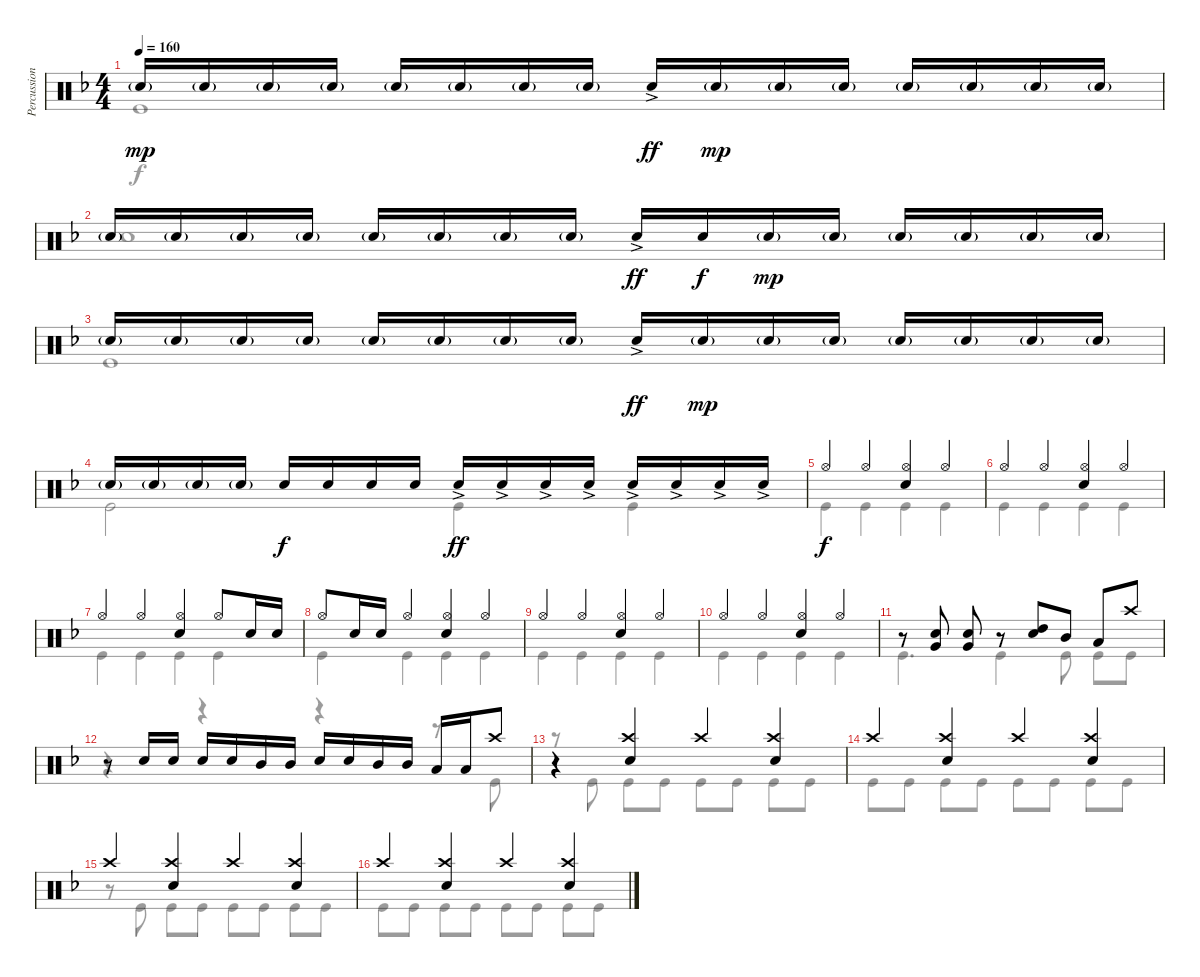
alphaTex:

\track ("Percussion" "Percussion") {instrument percussion}
\staff {score}
\articulation defaults
\voice
\ts (4 4)
\tempo 160
\clef neutral
\ks dminor "Snare (hit) 2"{g}.16{dy mp} "Snare (hit) 2"{g}.16 "Snare (hit) 2"{g}.16 "Snare (hit) 2"{g}.16 "Snare (hit) 2"{g}.16 "Snare (hit) 2"{g}.16 "Snare (hit) 2"{g}.16 "Snare (hit) 2"{g}.16 "Snare (hit) 2"{ac}.16{dy ff} "Snare (hit) 2"{g}.16{dy mp} "Snare (hit) 2"{g}.16 "Snare (hit) 2"{g}.16 "Snare (hit) 2"{g}.16 "Snare (hit) 2"{g}.16 "Snare (hit) 2"{g}.16 "Snare (hit) 2"{g}.16
|
"Snare (hit) 2"{g}.16 "Snare (hit) 2"{g}.16 "Snare (hit) 2"{g}.16 "Snare (hit) 2"{g}.16 "Snare (hit) 2"{g}.16 "Snare (hit) 2"{g}.16 "Snare (hit) 2"{g}.16 "Snare (hit) 2"{g}.16 "Snare (hit) 2"{ac}.16{dy ff} "Snare (hit) 2".16{dy f} "Snare (hit) 2"{g}.16{dy mp} "Snare (hit) 2"{g}.16 "Snare (hit) 2"{g}.16 "Snare (hit) 2"{g}.16 "Snare (hit) 2"{g}.16 "Snare (hit) 2"{g}.16 |
"Snare (hit) 2"{g}.16 "Snare (hit) 2"{g}.16 "Snare (hit) 2"{g}.16 "Snare (hit) 2"{g}.16 "Snare (hit) 2"{g}.16 "Snare (hit) 2"{g}.16 "Snare (hit) 2"{g}.16 "Snare (hit) 2"{g}.16 "Snare (hit) 2"{ac}.16{dy ff} "Snare (hit) 2"{g}.16{dy mp} "Snare (hit) 2"{g}.16 "Snare (hit) 2"{g}.16 "Snare (hit) 2"{g}.16 "Snare (hit) 2"{g}.16 "Snare (hit) 2"{g}.16 "Snare (hit) 2"{g}.16 |
"Snare (hit) 2"{g}.16 "Snare (hit) 2"{g}.16 "Snare (hit) 2"{g}.16 "Snare (hit) 2"{g}.16 "Snare (hit) 2".16{dy f} "Snare (hit) 2".16 "Snare (hit) 2".16 "Snare (hit) 2".16 "Snare (hit) 2"{ac}.16{dy ff} "Snare (hit) 2"{ac}.16 "Snare (hit) 2"{ac}.16 "Snare (hit) 2"{ac}.16 "Snare (hit) 2"{ac}.16 "Snare (hit) 2"{ac}.16 "Snare (hit) 2"{ac}.16 "Snare (hit) 2"{ac}.16 |
"Hi-Hat (open)".4{dy f} "Hi-Hat (open)".4 ("Hi-Hat (open)" "Snare (hit) 2").4 "Hi-Hat (open)".4 |
"Hi-Hat (open)".4 "Hi-Hat (open)".4 ("Hi-Hat (open)" "Snare (hit) 2").4 "Hi-Hat (open)".4 |
"Hi-Hat (open)".4 "Hi-Hat (open)".4 ("Hi-Hat (open)" "Snare (hit) 2").4 "Hi-Hat (open)".8 "Snare (hit) 2".16 "Snare (hit) 2".16 |
"Hi-Hat (open)".8 "Snare (hit) 2".16 "Snare (hit) 2".16 "Hi-Hat (open)".4 ("Hi-Hat (open)" "Snare (hit) 2").4 "Hi-Hat (open)".4 |
"Hi-Hat (open)".4 "Hi-Hat (open)".4 ("Hi-Hat (open)" "Snare (hit) 2").4 "Hi-Hat (open)".4 |
"Hi-Hat (open)".4 "Hi-Hat (open)".4 ("Hi-Hat (open)" "Snare (hit) 2").4 "Hi-Hat (open)".4 |
r.8 ("Very Low Tom (hit)" "Snare (hit) 2").8 ("Very Low Tom (hit)" "Snare (hit) 2").8 r.8 ("High Tom (hit)" "Snare (hit) 2").8 "Mid Tom (hit)".8 "Low Tom (hit)".8 "Crash high (hit)".8 |
r.8 "Snare (hit) 2".16 "Snare (hit) 2".16 "Snare (hit) 2".16 "Snare (hit) 2".16 "Mid Tom (hit)".16 "Mid Tom (hit)".16 "Snare (hit) 2".16 "Snare (hit) 2".16 "Mid Tom (hit)".16 "Mid Tom (hit)".16 "Low Tom (hit)".16 "Low Tom (hit)".16 "Crash high (hit)".8 |
r.4 ("Crash high (hit)" "Snare (hit) 2").4 "Crash high (hit)".4 ("Crash high (hit)" "Snare (hit) 2").4 |
"Crash high (hit)".4 ("Crash high (hit)" "Snare (hit) 2").4 "Crash high (hit)".4 ("Crash high (hit)" "Snare (hit) 2").4 |
"Crash high (hit)".4 ("Crash high (hit)" "Snare (hit) 2").4 "Crash high (hit)".4 ("Crash high (hit)" "Snare (hit) 2").4 |
"Crash high (hit)".4 ("Crash high (hit)" "Snare (hit) 2").4 "Crash high (hit)".4 ("Crash high (hit)" "Snare (hit) 2").4
\voice
\clef neutral
\ottava regular
\simile none
\ks dminor "Kick (hit)".1{dy f}
|
"Snare (hit)".1 |
"Kick (hit)".1 |
"Kick (hit)".2 "Kick (hit)".4 "Kick (hit)".4 |
"Kick (hit)".4 "Kick (hit)".4 "Kick (hit)".4 "Kick (hit)".4 |
"Kick (hit)".4 "Kick (hit)".4 "Kick (hit)".4 "Kick (hit)".4 |
"Kick (hit)".4 "Kick (hit)".4 "Kick (hit)".4 "Kick (hit)".4 |
"Kick (hit)".4 "Kick (hit)".4 "Kick (hit)".4 "Kick (hit)".4 |
"Kick (hit)".4 "Kick (hit)".4 "Kick (hit)".4 "Kick (hit)".4 |
"Kick (hit)".4 "Kick (hit)".4 "Kick (hit)".4 "Kick (hit)".4 |
"Kick (hit)".4{d} "Kick (hit)".4 "Kick (hit)".8 "Kick (hit)".8 "Kick (hit)".8 |
r.4 r.4 r.4 r.8 "Kick (hit)".8 |
r.8 "Kick (hit)".8 "Kick (hit)".8 "Kick (hit)".8 "Kick (hit)".8 "Kick (hit)".8 "Kick (hit)".8 "Kick (hit)".8 |
"Kick (hit)".8 "Kick (hit)".8 "Kick (hit)".8 "Kick (hit)".8 "Kick (hit)".8 "Kick (hit)".8 "Kick (hit)".8 "Kick (hit)".8 |
r.8 "Kick (hit)".8 "Kick (hit)".8 "Kick (hit)".8 "Kick (hit)".8 "Kick (hit)".8 "Kick (hit)".8 "Kick (hit)".8 |
"Kick (hit)".8 "Kick (hit)".8 "Kick (hit)".8 "Kick (hit)".8 "Kick (hit)".8 "Kick (hit)".8 "Kick (hit)".8 "Kick (hit)".8
